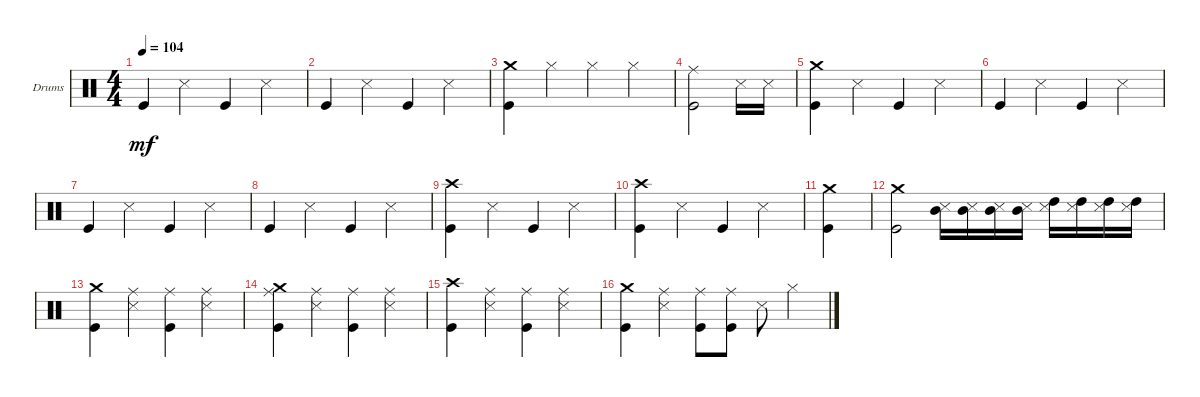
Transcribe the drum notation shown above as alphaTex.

\bracketExtendMode groupsimilarinstruments
\firstSystemTrackNameOrientation horizontal
\otherSystemsTrackNameOrientation horizontal
\track ("Drumkit" "Drums") {instrument percussion}
\staff {score}
\articulation defaults
\ts (4 4)
\tempo 104
\clef neutral
\scale
0.333333
\ks c "Kick (hit)".4{dy mf} "Snare (side stick) 3".4 "Kick (hit)".4 "Snare (side stick) 3".4
|
\scale
0.333333 "Kick (hit)".4 "Snare (side stick) 3".4 "Kick (hit)".4 "Snare (side stick) 3".4 |
\scale
0.333333 ("Kick (hit)" "Crash medium (hit)").4 "Hi-Hat (closed)".4 "Hi-Hat (closed)".4 "Hi-Hat (closed)".4 |
\scale
0.333333 ("Kick (hit)" "Ride (middle)").2 "Snare (side stick) 3".16 "Snare (side stick) 3".16 |
\scale
0.333333 ("Crash medium (hit)" "Kick (hit)").4 "Snare (side stick) 3".4 "Kick (hit)".4 "Snare (side stick) 3".4 |
\scale
0.333333 "Kick (hit)".4 "Snare (side stick) 3".4 "Kick (hit)".4 "Snare (side stick) 3".4 |
\scale
0.333333 "Kick (hit)".4 "Snare (side stick) 3".4 "Kick (hit)".4 "Snare (side stick) 3".4 |
\scale
0.333333 "Kick (hit)".4 "Snare (side stick) 3".4 "Kick (hit)".4 "Snare (side stick) 3".4 |
\scale
0.333333 ("Kick (hit)" "Crash high (hit)").4 "Snare (side stick) 3".4 "Kick (hit)".4 "Snare (side stick) 3".4 |
\scale
0.333333 ("Kick (hit)" "Crash high (hit)").4 "Snare (side stick) 3".4 "Kick (hit)".4 "Snare (side stick) 3".4 |
\scale
0.333333 ("Kick (hit)" "Crash medium (hit)").4 |
\scale
0.333333 ("Kick (hit)" "Crash medium (hit)").2 ("Snare (side stick) 3" "Mid Tom (hit)").16 ("Snare (side stick) 3" "Mid Tom (hit)").16 ("Snare (side stick) 3" "Mid Tom (hit)").16 ("Snare (side stick) 3" "Mid Tom (hit)").16 ("Snare (side stick) 3" "High Tom (hit)").16 ("Snare (side stick) 3" "High Tom (hit)").16 ("Snare (side stick) 3" "High Tom (hit)").16 ("Snare (side stick) 3" "High Tom (hit)").16 |
\scale
0.333333 ("Kick (hit)" "Crash medium (hit)").4 ("Snare (side stick) 3" "Ride (middle)").4 ("Kick (hit)" "Ride (middle)").4 ("Snare (side stick) 3" "Ride (middle)").4 |
\scale
0.333333 ("Kick (hit)" "Ride (middle)" "Crash medium (hit)").4 ("Snare (side stick) 3" "Ride (middle)").4 ("Kick (hit)" "Ride (middle)").4 ("Snare (side stick) 3" "Ride (middle)").4 |
\scale
0.333333 ("Kick (hit)" "Crash high (hit)").4 ("Snare (side stick) 3" "Ride (middle)").4 ("Kick (hit)" "Ride (middle)").4 ("Snare (side stick) 3" "Ride (middle)").4 |
\scale
0.333333 ("Kick (hit)" "Crash medium (hit)").4 ("Snare (side stick) 3" "Ride (middle)").4 ("Kick (hit)" "Ride (middle)").8 ("Kick (hit)" "Ride (middle)").8 "Snare (side stick) 3".8 "Hi-Hat (closed)".4
